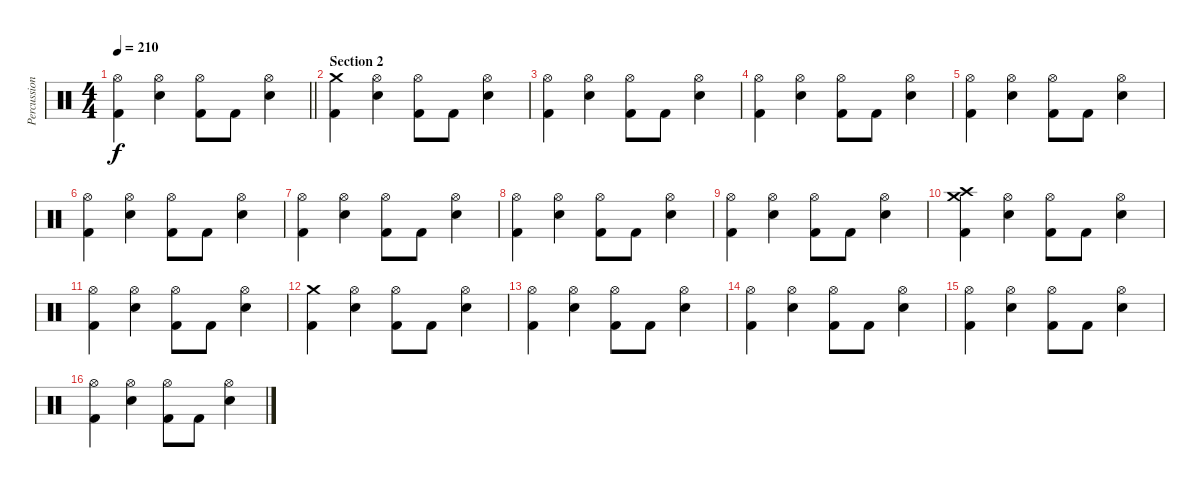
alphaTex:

\track ("Percussion" "Percussion") {instrument percussion}
\staff {score}
\articulation defaults
\ts (4 4)
\tempo 210
\clef neutral
\barLineRight lightlight
\ks c
("Kick (hit) 2" "Hi-Hat (open)").4{dy f} ("Electric Snare (hit)" "Hi-Hat (open)").4 ("Kick (hit) 2" "Hi-Hat (open)").8 "Kick (hit) 2".8 ("Electric Snare (hit)" "Hi-Hat (open)").4 |
\section ("" "Section 2")
("Kick (hit) 2" "Crash medium (hit)").4 ("Electric Snare (hit)" "Hi-Hat (open)").4 ("Kick (hit) 2" "Hi-Hat (open)").8 "Kick (hit) 2".8 ("Electric Snare (hit)" "Hi-Hat (open)").4 |
("Kick (hit) 2" "Hi-Hat (open)").4 ("Electric Snare (hit)" "Hi-Hat (open)").4 ("Kick (hit) 2" "Hi-Hat (open)").8 "Kick (hit) 2".8 ("Electric Snare (hit)" "Hi-Hat (open)").4 |
("Kick (hit) 2" "Hi-Hat (open)").4 ("Electric Snare (hit)" "Hi-Hat (open)").4 ("Kick (hit) 2" "Hi-Hat (open)").8 "Kick (hit) 2".8 ("Electric Snare (hit)" "Hi-Hat (open)").4 |
("Kick (hit) 2" "Hi-Hat (open)").4 ("Electric Snare (hit)" "Hi-Hat (open)").4 ("Kick (hit) 2" "Hi-Hat (open)").8 "Kick (hit) 2".8 ("Electric Snare (hit)" "Hi-Hat (open)").4 |
("Kick (hit) 2" "Hi-Hat (open)").4 ("Electric Snare (hit)" "Hi-Hat (open)").4 ("Kick (hit) 2" "Hi-Hat (open)").8 "Kick (hit) 2".8 ("Electric Snare (hit)" "Hi-Hat (open)").4 |
("Kick (hit) 2" "Hi-Hat (open)").4 ("Electric Snare (hit)" "Hi-Hat (open)").4 ("Kick (hit) 2" "Hi-Hat (open)").8 "Kick (hit) 2".8 ("Electric Snare (hit)" "Hi-Hat (open)").4 |
("Kick (hit) 2" "Hi-Hat (open)").4 ("Electric Snare (hit)" "Hi-Hat (open)").4 ("Kick (hit) 2" "Hi-Hat (open)").8 "Kick (hit) 2".8 ("Electric Snare (hit)" "Hi-Hat (open)").4 |
("Kick (hit) 2" "Hi-Hat (open)").4 ("Electric Snare (hit)" "Hi-Hat (open)").4 ("Kick (hit) 2" "Hi-Hat (open)").8 "Kick (hit) 2".8 ("Electric Snare (hit)" "Hi-Hat (open)").4 |
("Kick (hit) 2" "Crash medium (hit)" "Crash high (hit)").4 ("Electric Snare (hit)" "Hi-Hat (open)").4 ("Kick (hit) 2" "Hi-Hat (open)").8 "Kick (hit) 2".8 ("Electric Snare (hit)" "Hi-Hat (open)").4 |
("Kick (hit) 2" "Hi-Hat (open)").4 ("Electric Snare (hit)" "Hi-Hat (open)").4 ("Kick (hit) 2" "Hi-Hat (open)").8 "Kick (hit) 2".8 ("Electric Snare (hit)" "Hi-Hat (open)").4 |
("Kick (hit) 2" "Crash medium (hit)").4 ("Electric Snare (hit)" "Hi-Hat (open)").4 ("Kick (hit) 2" "Hi-Hat (open)").8 "Kick (hit) 2".8 ("Electric Snare (hit)" "Hi-Hat (open)").4 |
("Kick (hit) 2" "Hi-Hat (open)").4 ("Electric Snare (hit)" "Hi-Hat (open)").4 ("Kick (hit) 2" "Hi-Hat (open)").8 "Kick (hit) 2".8 ("Electric Snare (hit)" "Hi-Hat (open)").4 |
("Kick (hit) 2" "Hi-Hat (open)").4 ("Electric Snare (hit)" "Hi-Hat (open)").4 ("Kick (hit) 2" "Hi-Hat (open)").8 "Kick (hit) 2".8 ("Electric Snare (hit)" "Hi-Hat (open)").4 |
("Kick (hit) 2" "Hi-Hat (open)").4 ("Electric Snare (hit)" "Hi-Hat (open)").4 ("Kick (hit) 2" "Hi-Hat (open)").8 "Kick (hit) 2".8 ("Electric Snare (hit)" "Hi-Hat (open)").4 |
("Kick (hit) 2" "Hi-Hat (open)").4 ("Electric Snare (hit)" "Hi-Hat (open)").4 ("Kick (hit) 2" "Hi-Hat (open)").8 "Kick (hit) 2".8 ("Electric Snare (hit)" "Hi-Hat (open)").4
